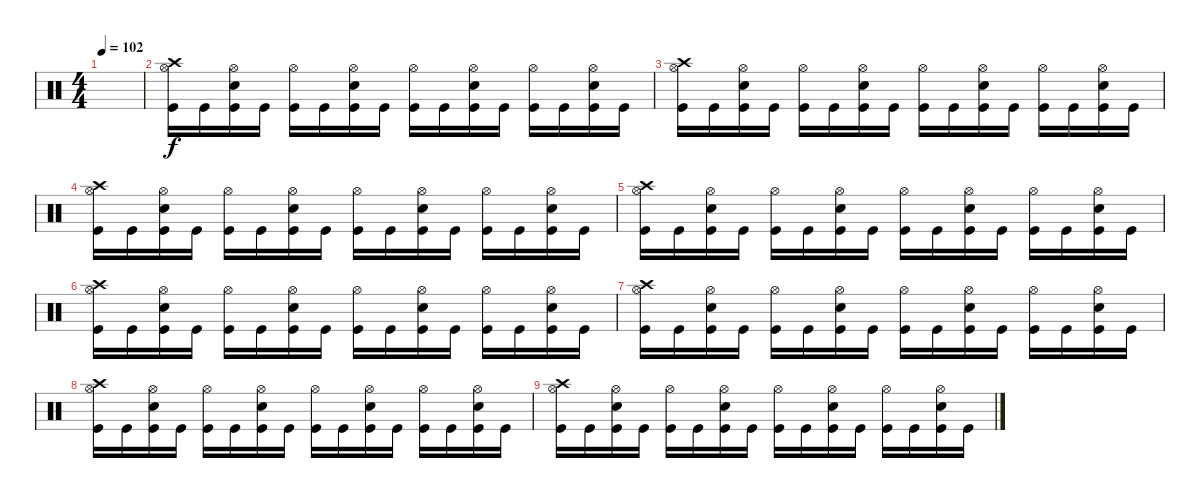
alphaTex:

\track "" {instrument percussion}
\staff {score}
\articulation defaults
\ts (4 4)
\tempo 102
\clef neutral
\ks c
|
("Crash high (hit)" "Kick (hit)" "Hi-Hat (open)").16 "Kick (hit)".16 ("Kick (hit)" "Electric Snare (hit)" "Hi-Hat (open)").16 "Kick (hit)".16 ("Kick (hit)" "Hi-Hat (open)").16 "Kick (hit)".16 ("Kick (hit)" "Electric Snare (hit)" "Hi-Hat (open)").16 "Kick (hit)".16 ("Hi-Hat (open)" "Kick (hit)").16 "Kick (hit)".16 ("Kick (hit)" "Hi-Hat (open)" "Electric Snare (hit)").16 "Kick (hit)".16 ("Hi-Hat (open)" "Kick (hit)").16 "Kick (hit)".16 ("Kick (hit)" "Hi-Hat (open)" "Electric Snare (hit)").16 "Kick (hit)".16 |
("Crash high (hit)" "Kick (hit)" "Hi-Hat (open)").16 "Kick (hit)".16 ("Kick (hit)" "Electric Snare (hit)" "Hi-Hat (open)").16 "Kick (hit)".16 ("Kick (hit)" "Hi-Hat (open)").16 "Kick (hit)".16 ("Kick (hit)" "Electric Snare (hit)" "Hi-Hat (open)").16 "Kick (hit)".16 ("Hi-Hat (open)" "Kick (hit)").16 "Kick (hit)".16 ("Kick (hit)" "Hi-Hat (open)" "Electric Snare (hit)").16 "Kick (hit)".16 ("Hi-Hat (open)" "Kick (hit)").16 "Kick (hit)".16 ("Kick (hit)" "Hi-Hat (open)" "Electric Snare (hit)").16 "Kick (hit)".16 |
("Crash high (hit)" "Kick (hit)" "Hi-Hat (open)").16 "Kick (hit)".16 ("Kick (hit)" "Electric Snare (hit)" "Hi-Hat (open)").16 "Kick (hit)".16 ("Kick (hit)" "Hi-Hat (open)").16 "Kick (hit)".16 ("Kick (hit)" "Electric Snare (hit)" "Hi-Hat (open)").16 "Kick (hit)".16 ("Hi-Hat (open)" "Kick (hit)").16 "Kick (hit)".16 ("Kick (hit)" "Hi-Hat (open)" "Electric Snare (hit)").16 "Kick (hit)".16 ("Hi-Hat (open)" "Kick (hit)").16 "Kick (hit)".16 ("Kick (hit)" "Hi-Hat (open)" "Electric Snare (hit)").16 "Kick (hit)".16 |
("Crash high (hit)" "Kick (hit)" "Hi-Hat (open)").16 "Kick (hit)".16 ("Kick (hit)" "Electric Snare (hit)" "Hi-Hat (open)").16 "Kick (hit)".16 ("Kick (hit)" "Hi-Hat (open)").16 "Kick (hit)".16 ("Kick (hit)" "Electric Snare (hit)" "Hi-Hat (open)").16 "Kick (hit)".16 ("Hi-Hat (open)" "Kick (hit)").16 "Kick (hit)".16 ("Kick (hit)" "Hi-Hat (open)" "Electric Snare (hit)").16 "Kick (hit)".16 ("Hi-Hat (open)" "Kick (hit)").16 "Kick (hit)".16 ("Kick (hit)" "Hi-Hat (open)" "Electric Snare (hit)").16 "Kick (hit)".16 |
("Crash high (hit)" "Kick (hit)" "Hi-Hat (open)").16 "Kick (hit)".16 ("Kick (hit)" "Electric Snare (hit)" "Hi-Hat (open)").16 "Kick (hit)".16 ("Kick (hit)" "Hi-Hat (open)").16 "Kick (hit)".16 ("Kick (hit)" "Electric Snare (hit)" "Hi-Hat (open)").16 "Kick (hit)".16 ("Hi-Hat (open)" "Kick (hit)").16 "Kick (hit)".16 ("Kick (hit)" "Hi-Hat (open)" "Electric Snare (hit)").16 "Kick (hit)".16 ("Hi-Hat (open)" "Kick (hit)").16 "Kick (hit)".16 ("Kick (hit)" "Hi-Hat (open)" "Electric Snare (hit)").16 "Kick (hit)".16 |
("Crash high (hit)" "Kick (hit)" "Hi-Hat (open)").16 "Kick (hit)".16 ("Kick (hit)" "Electric Snare (hit)" "Hi-Hat (open)").16 "Kick (hit)".16 ("Kick (hit)" "Hi-Hat (open)").16 "Kick (hit)".16 ("Kick (hit)" "Electric Snare (hit)" "Hi-Hat (open)").16 "Kick (hit)".16 ("Hi-Hat (open)" "Kick (hit)").16 "Kick (hit)".16 ("Kick (hit)" "Hi-Hat (open)" "Electric Snare (hit)").16 "Kick (hit)".16 ("Hi-Hat (open)" "Kick (hit)").16 "Kick (hit)".16 ("Kick (hit)" "Hi-Hat (open)" "Electric Snare (hit)").16 "Kick (hit)".16 |
("Crash high (hit)" "Kick (hit)" "Hi-Hat (open)").16 "Kick (hit)".16 ("Kick (hit)" "Electric Snare (hit)" "Hi-Hat (open)").16 "Kick (hit)".16 ("Kick (hit)" "Hi-Hat (open)").16 "Kick (hit)".16 ("Kick (hit)" "Electric Snare (hit)" "Hi-Hat (open)").16 "Kick (hit)".16 ("Hi-Hat (open)" "Kick (hit)").16 "Kick (hit)".16 ("Kick (hit)" "Hi-Hat (open)" "Electric Snare (hit)").16 "Kick (hit)".16 ("Hi-Hat (open)" "Kick (hit)").16 "Kick (hit)".16 ("Kick (hit)" "Hi-Hat (open)" "Electric Snare (hit)").16 "Kick (hit)".16 |
("Crash high (hit)" "Kick (hit)" "Hi-Hat (open)").16 "Kick (hit)".16 ("Kick (hit)" "Electric Snare (hit)" "Hi-Hat (open)").16 "Kick (hit)".16 ("Kick (hit)" "Hi-Hat (open)").16 "Kick (hit)".16 ("Kick (hit)" "Electric Snare (hit)" "Hi-Hat (open)").16 "Kick (hit)".16 ("Hi-Hat (open)" "Kick (hit)").16 "Kick (hit)".16 ("Kick (hit)" "Hi-Hat (open)" "Electric Snare (hit)").16 "Kick (hit)".16 ("Hi-Hat (open)" "Kick (hit)").16 "Kick (hit)".16 ("Kick (hit)" "Hi-Hat (open)" "Electric Snare (hit)").16 "Kick (hit)".16
